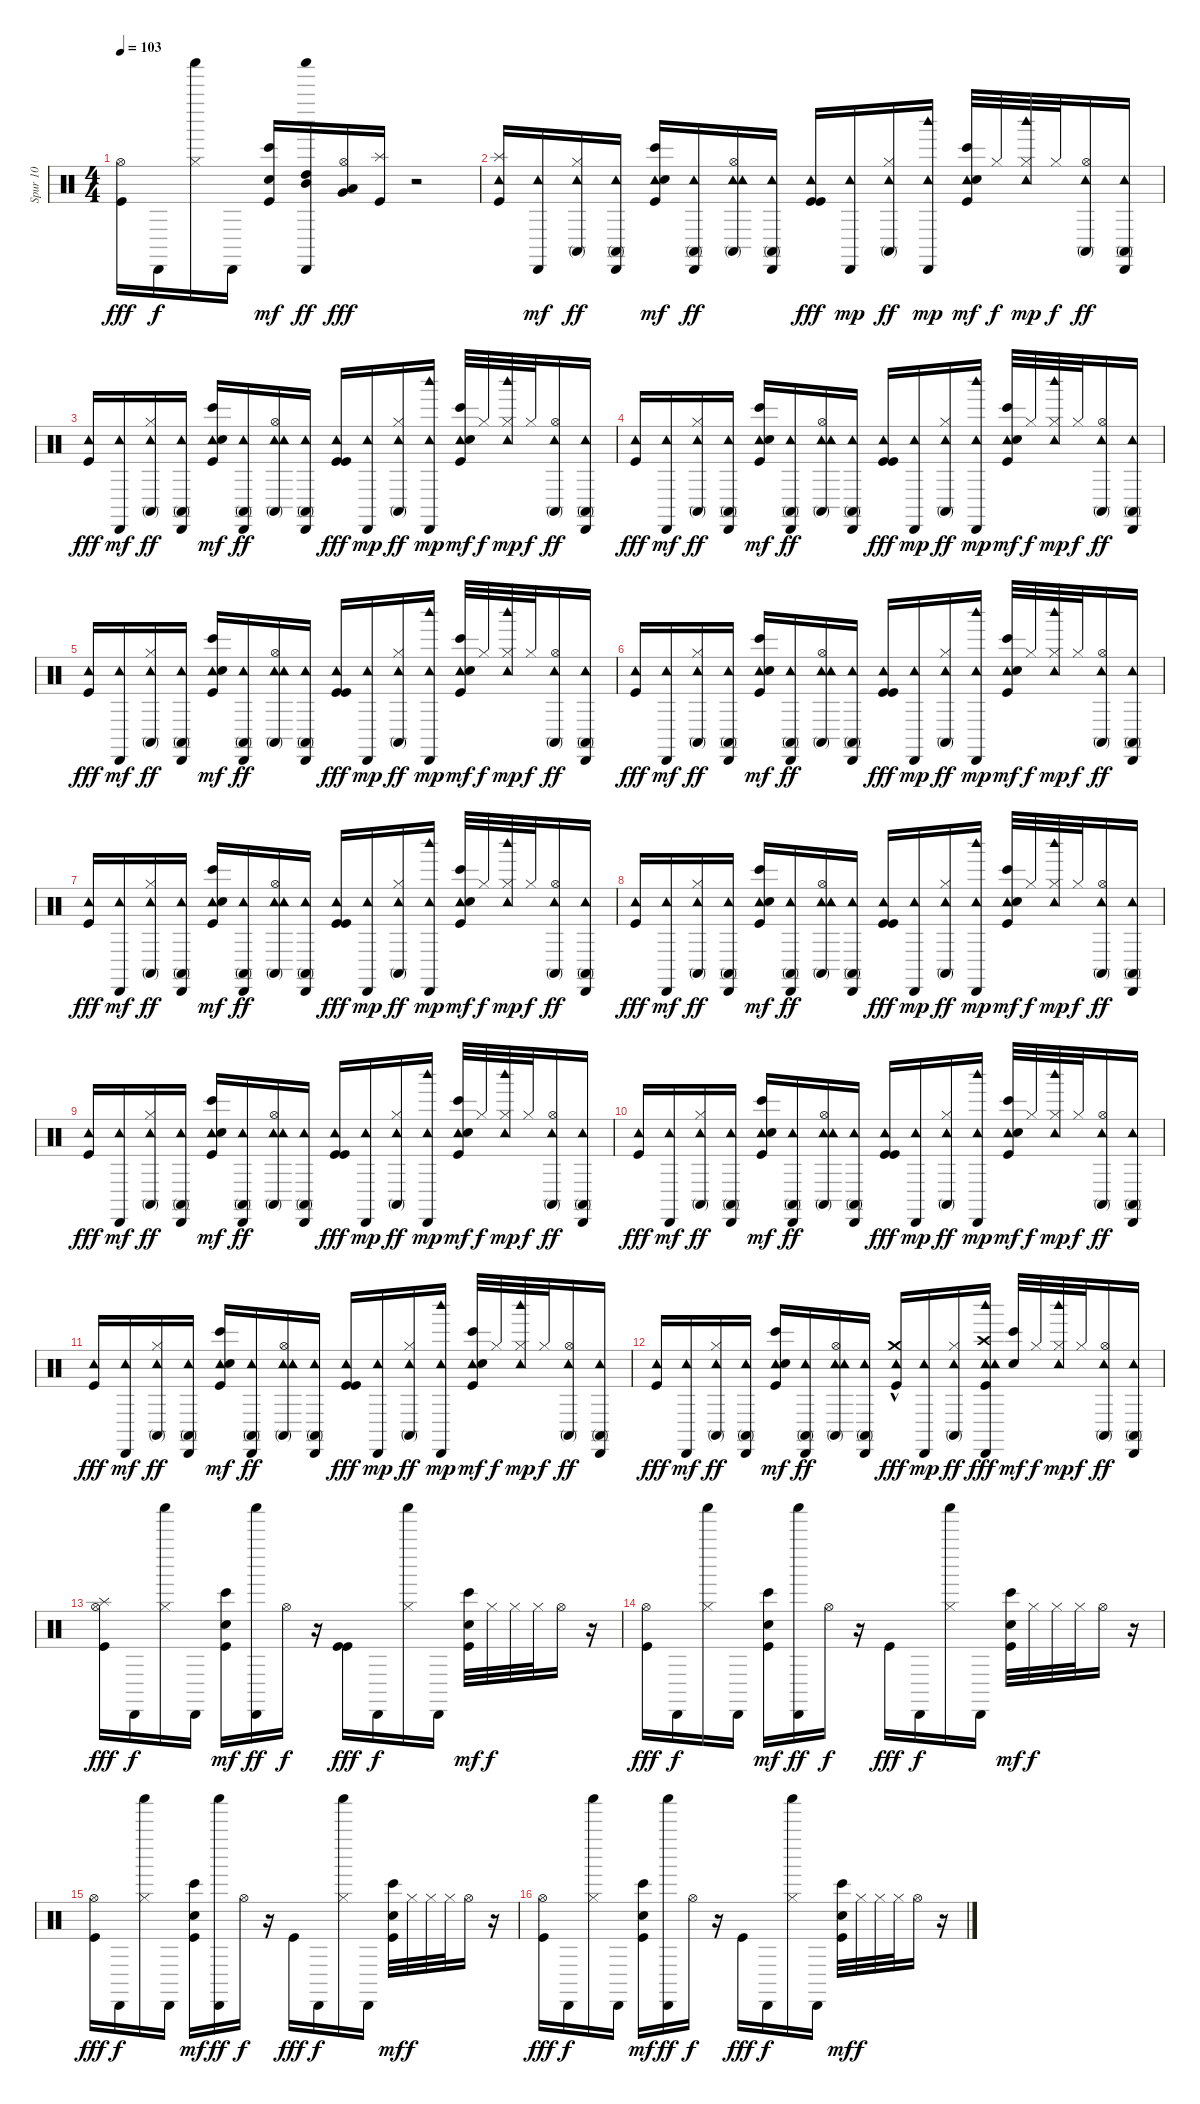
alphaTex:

\track ("Spur 10" "Spur 10") {instrument percussion}
\staff {score}
\articulation defaults
\ts (4 4)
\tempo 103
\clef neutral
\ks c
("Hi-Hat (open)" "Kick (hit)").16{dy fff} "Cabasa (hit)".16{dy f} ("Shaker (hit)" "Hi-Hat (closed)").16 "Cabasa (hit)".16 ("Kick (hit)" "Electric Snare (hit)" "Bongo High (hit)").16{dy mf} ("High Tom (hit)" "Mid Tom (hit)" "Cabasa (hit)" "Shaker (hit)").16{dy ff} ("Low Tom (hit)" "Hi-Hat (open)" "Very Low Tom (hit)").16{dy fff} ("Splash (hit)" "Kick (hit)").16 r.2 |
("Tambourine (hit)" "Splash (hit)" "Kick (hit)").16 ("Tambourine (hit)" "Cabasa (hit)").16{dy mf} ("Tambourine (hit)" "Hi-Hat (closed)" "Conga high (mute)").16{dy ff} ("Tambourine (hit)" "Cabasa (hit)" "Conga high (mute)").16 ("Tambourine (hit)" "Kick (hit)" "Electric Snare (hit)" "Bongo High (hit)").16{dy mf} ("Tambourine (hit)" "Cabasa (hit)" "Conga high (mute)").16{dy ff} ("Tambourine (hit)" "Hi-Hat (open)" "Tambourine (hit)" "Conga high (mute)").16 ("Tambourine (hit)" "Cabasa (hit)" "Conga high (mute)").16 ("Tambourine (hit)" "Kick (hit)" "Kick (hit)").16{dy fff} ("Cabasa (hit)" "Tambourine (hit)").16{dy mp} ("Hi-Hat (closed)" "Tambourine (hit)" "Conga high (mute)").16{dy ff} ("Cabasa (hit)" "Tambourine (hit)" "Woodblock high (hit)").16{dy mp} ("Tambourine (hit)" "Kick (hit)" "Electric Snare (hit)" "Bongo High (hit)").32{dy mf} "Hi-Hat (closed)".32{dy f} ("Hi-Hat (closed)" "Tambourine (hit)" "Woodblock high (hit)").32{dy mp} "Hi-Hat (closed)".32{dy f} ("Hi-Hat (open)" "Tambourine (hit)" "Conga high (mute)").16{dy ff} ("Tambourine (hit)" "Cabasa (hit)" "Conga high (mute)").16 |
("Tambourine (hit)" "Kick (hit)").16{dy fff} ("Tambourine (hit)" "Cabasa (hit)").16{dy mf} ("Tambourine (hit)" "Hi-Hat (closed)" "Conga high (mute)").16{dy ff} ("Tambourine (hit)" "Cabasa (hit)" "Conga high (mute)").16 ("Tambourine (hit)" "Kick (hit)" "Electric Snare (hit)" "Bongo High (hit)").16{dy mf} ("Tambourine (hit)" "Cabasa (hit)" "Conga high (mute)").16{dy ff} ("Tambourine (hit)" "Hi-Hat (open)" "Tambourine (hit)" "Conga high (mute)").16 ("Tambourine (hit)" "Cabasa (hit)" "Conga high (mute)").16 ("Tambourine (hit)" "Kick (hit)" "Kick (hit)").16{dy fff} ("Cabasa (hit)" "Tambourine (hit)").16{dy mp} ("Hi-Hat (closed)" "Tambourine (hit)" "Conga high (mute)").16{dy ff} ("Cabasa (hit)" "Tambourine (hit)" "Woodblock high (hit)").16{dy mp} ("Tambourine (hit)" "Kick (hit)" "Electric Snare (hit)" "Bongo High (hit)").32{dy mf} "Hi-Hat (closed)".32{dy f} ("Hi-Hat (closed)" "Tambourine (hit)" "Woodblock high (hit)").32{dy mp} "Hi-Hat (closed)".32{dy f} ("Hi-Hat (open)" "Tambourine (hit)" "Conga high (mute)").16{dy ff} ("Tambourine (hit)" "Cabasa (hit)" "Conga high (mute)").16 |
("Tambourine (hit)" "Kick (hit)").16{dy fff} ("Tambourine (hit)" "Cabasa (hit)").16{dy mf} ("Tambourine (hit)" "Hi-Hat (closed)" "Conga high (mute)").16{dy ff} ("Tambourine (hit)" "Cabasa (hit)" "Conga high (mute)").16 ("Tambourine (hit)" "Kick (hit)" "Electric Snare (hit)" "Bongo High (hit)").16{dy mf} ("Tambourine (hit)" "Cabasa (hit)" "Conga high (mute)").16{dy ff} ("Tambourine (hit)" "Hi-Hat (open)" "Tambourine (hit)" "Conga high (mute)").16 ("Tambourine (hit)" "Cabasa (hit)" "Conga high (mute)").16 ("Tambourine (hit)" "Kick (hit)" "Kick (hit)").16{dy fff} ("Cabasa (hit)" "Tambourine (hit)").16{dy mp} ("Hi-Hat (closed)" "Tambourine (hit)" "Conga high (mute)").16{dy ff} ("Cabasa (hit)" "Tambourine (hit)" "Woodblock high (hit)").16{dy mp} ("Tambourine (hit)" "Kick (hit)" "Electric Snare (hit)" "Bongo High (hit)").32{dy mf} "Hi-Hat (closed)".32{dy f} ("Hi-Hat (closed)" "Tambourine (hit)" "Woodblock high (hit)").32{dy mp} "Hi-Hat (closed)".32{dy f} ("Hi-Hat (open)" "Tambourine (hit)" "Conga high (mute)").16{dy ff} ("Tambourine (hit)" "Cabasa (hit)" "Conga high (mute)").16 |
("Tambourine (hit)" "Kick (hit)").16{dy fff} ("Tambourine (hit)" "Cabasa (hit)").16{dy mf} ("Tambourine (hit)" "Hi-Hat (closed)" "Conga high (mute)").16{dy ff} ("Tambourine (hit)" "Cabasa (hit)" "Conga high (mute)").16 ("Tambourine (hit)" "Kick (hit)" "Electric Snare (hit)" "Bongo High (hit)").16{dy mf} ("Tambourine (hit)" "Cabasa (hit)" "Conga high (mute)").16{dy ff} ("Tambourine (hit)" "Hi-Hat (open)" "Tambourine (hit)" "Conga high (mute)").16 ("Tambourine (hit)" "Cabasa (hit)" "Conga high (mute)").16 ("Tambourine (hit)" "Kick (hit)" "Kick (hit)").16{dy fff} ("Cabasa (hit)" "Tambourine (hit)").16{dy mp} ("Hi-Hat (closed)" "Tambourine (hit)" "Conga high (mute)").16{dy ff} ("Cabasa (hit)" "Tambourine (hit)" "Woodblock high (hit)").16{dy mp} ("Tambourine (hit)" "Kick (hit)" "Electric Snare (hit)" "Bongo High (hit)").32{dy mf} "Hi-Hat (closed)".32{dy f} ("Hi-Hat (closed)" "Tambourine (hit)" "Woodblock high (hit)").32{dy mp} "Hi-Hat (closed)".32{dy f} ("Hi-Hat (open)" "Tambourine (hit)" "Conga high (mute)").16{dy ff} ("Tambourine (hit)" "Cabasa (hit)" "Conga high (mute)").16 |
("Tambourine (hit)" "Kick (hit)").16{dy fff} ("Tambourine (hit)" "Cabasa (hit)").16{dy mf} ("Tambourine (hit)" "Hi-Hat (closed)" "Conga high (mute)").16{dy ff} ("Tambourine (hit)" "Cabasa (hit)" "Conga high (mute)").16 ("Tambourine (hit)" "Kick (hit)" "Electric Snare (hit)" "Bongo High (hit)").16{dy mf} ("Tambourine (hit)" "Cabasa (hit)" "Conga high (mute)").16{dy ff} ("Tambourine (hit)" "Hi-Hat (open)" "Tambourine (hit)" "Conga high (mute)").16 ("Tambourine (hit)" "Cabasa (hit)" "Conga high (mute)").16 ("Tambourine (hit)" "Kick (hit)" "Kick (hit)").16{dy fff} ("Cabasa (hit)" "Tambourine (hit)").16{dy mp} ("Hi-Hat (closed)" "Tambourine (hit)" "Conga high (mute)").16{dy ff} ("Cabasa (hit)" "Tambourine (hit)" "Woodblock high (hit)").16{dy mp} ("Tambourine (hit)" "Kick (hit)" "Electric Snare (hit)" "Bongo High (hit)").32{dy mf} "Hi-Hat (closed)".32{dy f} ("Hi-Hat (closed)" "Tambourine (hit)" "Woodblock high (hit)").32{dy mp} "Hi-Hat (closed)".32{dy f} ("Hi-Hat (open)" "Tambourine (hit)" "Conga high (mute)").16{dy ff} ("Tambourine (hit)" "Cabasa (hit)" "Conga high (mute)").16 |
("Tambourine (hit)" "Kick (hit)").16{dy fff} ("Tambourine (hit)" "Cabasa (hit)").16{dy mf} ("Tambourine (hit)" "Hi-Hat (closed)" "Conga high (mute)").16{dy ff} ("Tambourine (hit)" "Cabasa (hit)" "Conga high (mute)").16 ("Tambourine (hit)" "Kick (hit)" "Electric Snare (hit)" "Bongo High (hit)").16{dy mf} ("Tambourine (hit)" "Cabasa (hit)" "Conga high (mute)").16{dy ff} ("Tambourine (hit)" "Hi-Hat (open)" "Tambourine (hit)" "Conga high (mute)").16 ("Tambourine (hit)" "Cabasa (hit)" "Conga high (mute)").16 ("Tambourine (hit)" "Kick (hit)" "Kick (hit)").16{dy fff} ("Cabasa (hit)" "Tambourine (hit)").16{dy mp} ("Hi-Hat (closed)" "Tambourine (hit)" "Conga high (mute)").16{dy ff} ("Cabasa (hit)" "Tambourine (hit)" "Woodblock high (hit)").16{dy mp} ("Tambourine (hit)" "Kick (hit)" "Electric Snare (hit)" "Bongo High (hit)").32{dy mf} "Hi-Hat (closed)".32{dy f} ("Hi-Hat (closed)" "Tambourine (hit)" "Woodblock high (hit)").32{dy mp} "Hi-Hat (closed)".32{dy f} ("Hi-Hat (open)" "Tambourine (hit)" "Conga high (mute)").16{dy ff} ("Tambourine (hit)" "Cabasa (hit)" "Conga high (mute)").16 |
("Tambourine (hit)" "Kick (hit)").16{dy fff} ("Tambourine (hit)" "Cabasa (hit)").16{dy mf} ("Tambourine (hit)" "Hi-Hat (closed)" "Conga high (mute)").16{dy ff} ("Tambourine (hit)" "Cabasa (hit)" "Conga high (mute)").16 ("Tambourine (hit)" "Kick (hit)" "Electric Snare (hit)" "Bongo High (hit)").16{dy mf} ("Tambourine (hit)" "Cabasa (hit)" "Conga high (mute)").16{dy ff} ("Tambourine (hit)" "Hi-Hat (open)" "Tambourine (hit)" "Conga high (mute)").16 ("Tambourine (hit)" "Cabasa (hit)" "Conga high (mute)").16 ("Tambourine (hit)" "Kick (hit)" "Kick (hit)").16{dy fff} ("Cabasa (hit)" "Tambourine (hit)").16{dy mp} ("Hi-Hat (closed)" "Tambourine (hit)" "Conga high (mute)").16{dy ff} ("Cabasa (hit)" "Tambourine (hit)" "Woodblock high (hit)").16{dy mp} ("Tambourine (hit)" "Kick (hit)" "Electric Snare (hit)" "Bongo High (hit)").32{dy mf} "Hi-Hat (closed)".32{dy f} ("Hi-Hat (closed)" "Tambourine (hit)" "Woodblock high (hit)").32{dy mp} "Hi-Hat (closed)".32{dy f} ("Hi-Hat (open)" "Tambourine (hit)" "Conga high (mute)").16{dy ff} ("Tambourine (hit)" "Cabasa (hit)" "Conga high (mute)").16 |
("Tambourine (hit)" "Kick (hit)").16{dy fff} ("Tambourine (hit)" "Cabasa (hit)").16{dy mf} ("Tambourine (hit)" "Hi-Hat (closed)" "Conga high (mute)").16{dy ff} ("Tambourine (hit)" "Cabasa (hit)" "Conga high (mute)").16 ("Tambourine (hit)" "Kick (hit)" "Electric Snare (hit)" "Bongo High (hit)").16{dy mf} ("Tambourine (hit)" "Cabasa (hit)" "Conga high (mute)").16{dy ff} ("Tambourine (hit)" "Hi-Hat (open)" "Tambourine (hit)" "Conga high (mute)").16 ("Tambourine (hit)" "Cabasa (hit)" "Conga high (mute)").16 ("Tambourine (hit)" "Kick (hit)" "Kick (hit)").16{dy fff} ("Cabasa (hit)" "Tambourine (hit)").16{dy mp} ("Hi-Hat (closed)" "Tambourine (hit)" "Conga high (mute)").16{dy ff} ("Cabasa (hit)" "Tambourine (hit)" "Woodblock high (hit)").16{dy mp} ("Tambourine (hit)" "Kick (hit)" "Electric Snare (hit)" "Bongo High (hit)").32{dy mf} "Hi-Hat (closed)".32{dy f} ("Hi-Hat (closed)" "Tambourine (hit)" "Woodblock high (hit)").32{dy mp} "Hi-Hat (closed)".32{dy f} ("Hi-Hat (open)" "Tambourine (hit)" "Conga high (mute)").16{dy ff} ("Tambourine (hit)" "Cabasa (hit)" "Conga high (mute)").16 |
("Tambourine (hit)" "Kick (hit)").16{dy fff} ("Tambourine (hit)" "Cabasa (hit)").16{dy mf} ("Tambourine (hit)" "Hi-Hat (closed)" "Conga high (mute)").16{dy ff} ("Tambourine (hit)" "Cabasa (hit)" "Conga high (mute)").16 ("Tambourine (hit)" "Kick (hit)" "Electric Snare (hit)" "Bongo High (hit)").16{dy mf} ("Tambourine (hit)" "Cabasa (hit)" "Conga high (mute)").16{dy ff} ("Tambourine (hit)" "Hi-Hat (open)" "Tambourine (hit)" "Conga high (mute)").16 ("Tambourine (hit)" "Cabasa (hit)" "Conga high (mute)").16 ("Tambourine (hit)" "Kick (hit)" "Kick (hit)").16{dy fff} ("Cabasa (hit)" "Tambourine (hit)").16{dy mp} ("Hi-Hat (closed)" "Tambourine (hit)" "Conga high (mute)").16{dy ff} ("Cabasa (hit)" "Tambourine (hit)" "Woodblock high (hit)").16{dy mp} ("Tambourine (hit)" "Kick (hit)" "Electric Snare (hit)" "Bongo High (hit)").32{dy mf} "Hi-Hat (closed)".32{dy f} ("Hi-Hat (closed)" "Tambourine (hit)" "Woodblock high (hit)").32{dy mp} "Hi-Hat (closed)".32{dy f} ("Hi-Hat (open)" "Tambourine (hit)" "Conga high (mute)").16{dy ff} ("Tambourine (hit)" "Cabasa (hit)" "Conga high (mute)").16 |
("Tambourine (hit)" "Kick (hit)").16{dy fff} ("Tambourine (hit)" "Cabasa (hit)").16{dy mf} ("Tambourine (hit)" "Hi-Hat (closed)" "Conga high (mute)").16{dy ff} ("Tambourine (hit)" "Cabasa (hit)" "Conga high (mute)").16 ("Tambourine (hit)" "Kick (hit)" "Electric Snare (hit)" "Bongo High (hit)").16{dy mf} ("Tambourine (hit)" "Cabasa (hit)" "Conga high (mute)").16{dy ff} ("Tambourine (hit)" "Hi-Hat (open)" "Tambourine (hit)" "Conga high (mute)").16 ("Tambourine (hit)" "Cabasa (hit)" "Conga high (mute)").16 ("Tambourine (hit)" "Kick (hit)" "Kick (hit)").16{dy fff} ("Cabasa (hit)" "Tambourine (hit)").16{dy mp} ("Hi-Hat (closed)" "Tambourine (hit)" "Conga high (mute)").16{dy ff} ("Cabasa (hit)" "Tambourine (hit)" "Woodblock high (hit)").16{dy mp} ("Tambourine (hit)" "Kick (hit)" "Electric Snare (hit)" "Bongo High (hit)").32{dy mf} "Hi-Hat (closed)".32{dy f} ("Hi-Hat (closed)" "Tambourine (hit)" "Woodblock high (hit)").32{dy mp} "Hi-Hat (closed)".32{dy f} ("Hi-Hat (open)" "Tambourine (hit)" "Conga high (mute)").16{dy ff} ("Tambourine (hit)" "Cabasa (hit)" "Conga high (mute)").16 |
("Tambourine (hit)" "Kick (hit)").16{dy fff} ("Tambourine (hit)" "Cabasa (hit)").16{dy mf} ("Tambourine (hit)" "Hi-Hat (closed)" "Conga high (mute)").16{dy ff} ("Tambourine (hit)" "Cabasa (hit)" "Conga high (mute)").16 ("Tambourine (hit)" "Kick (hit)" "Electric Snare (hit)" "Bongo High (hit)").16{dy mf} ("Tambourine (hit)" "Cabasa (hit)" "Conga high (mute)").16{dy ff} ("Tambourine (hit)" "Hi-Hat (open)" "Tambourine (hit)" "Conga high (mute)").16 ("Tambourine (hit)" "Cabasa (hit)" "Conga high (mute)").16 ("Tambourine (hit)" "Crash medium (hit)" "Kick (hit)"{hac}).16{dy fff} ("Cabasa (hit)" "Tambourine (hit)").16{dy mp} ("Hi-Hat (closed)" "Tambourine (hit)" "Conga high (mute)").16{dy ff} ("Cabasa (hit)" "Tambourine (hit)" "Woodblock high (hit)" "Kick (hit)" "Tambourine (hit)" "Crash high (hit)").16{dy fff} ("Electric Snare (hit)" "Bongo High (hit)").32{dy mf} "Hi-Hat (closed)".32{dy f} ("Hi-Hat (closed)" "Tambourine (hit)" "Woodblock high (hit)").32{dy mp} "Hi-Hat (closed)".32{dy f} ("Hi-Hat (open)" "Tambourine (hit)" "Conga high (mute)").16{dy ff} ("Tambourine (hit)" "Cabasa (hit)" "Conga high (mute)").16 |
("Hi-Hat (open)" "Splash (hit)" "Kick (hit)").16{dy fff} "Cabasa (hit)".16{dy f} ("Shaker (hit)" "Hi-Hat (closed)").16 "Cabasa (hit)".16 ("Kick (hit)" "Electric Snare (hit)" "Bongo High (hit)").16{dy mf} ("Cabasa (hit)" "Shaker (hit)").16{dy ff} "Hi-Hat (open)".16{dy f} r.16 ("Kick (hit)" "Kick (hit)").16{dy fff} "Cabasa (hit)".16{dy f} ("Hi-Hat (closed)" "Shaker (hit)").16 "Cabasa (hit)".16 ("Kick (hit)" "Electric Snare (hit)" "Bongo High (hit)").32{dy mf} "Hi-Hat (closed)".32{dy f} "Hi-Hat (closed)".32 "Hi-Hat (closed)".32 "Hi-Hat (open)".16 r.16 |
("Hi-Hat (open)" "Kick (hit)").16{dy fff} "Cabasa (hit)".16{dy f} ("Shaker (hit)" "Hi-Hat (closed)").16 "Cabasa (hit)".16 ("Kick (hit)" "Electric Snare (hit)" "Bongo High (hit)").16{dy mf} ("Cabasa (hit)" "Shaker (hit)").16{dy ff} "Hi-Hat (open)".16{dy f} r.16 "Kick (hit)".16{dy fff} "Cabasa (hit)".16{dy f} ("Hi-Hat (closed)" "Shaker (hit)").16 "Cabasa (hit)".16 ("Kick (hit)" "Electric Snare (hit)" "Bongo High (hit)").32{dy mf} "Hi-Hat (closed)".32{dy f} "Hi-Hat (closed)".32 "Hi-Hat (closed)".32 "Hi-Hat (open)".16 r.16 |
("Hi-Hat (open)" "Kick (hit)").16{dy fff} "Cabasa (hit)".16{dy f} ("Shaker (hit)" "Hi-Hat (closed)").16 "Cabasa (hit)".16 ("Kick (hit)" "Electric Snare (hit)" "Bongo High (hit)").16{dy mf} ("Cabasa (hit)" "Shaker (hit)").16{dy ff} "Hi-Hat (open)".16{dy f} r.16 "Kick (hit)".16{dy fff} "Cabasa (hit)".16{dy f} ("Hi-Hat (closed)" "Shaker (hit)").16 "Cabasa (hit)".16 ("Kick (hit)" "Electric Snare (hit)" "Bongo High (hit)").32{dy mf} "Hi-Hat (closed)".32{dy f} "Hi-Hat (closed)".32 "Hi-Hat (closed)".32 "Hi-Hat (open)".16 r.16 |
("Hi-Hat (open)" "Kick (hit)").16{dy fff} "Cabasa (hit)".16{dy f} ("Shaker (hit)" "Hi-Hat (closed)").16 "Cabasa (hit)".16 ("Kick (hit)" "Electric Snare (hit)" "Bongo High (hit)").16{dy mf} ("Cabasa (hit)" "Shaker (hit)").16{dy ff} "Hi-Hat (open)".16{dy f} r.16 "Kick (hit)".16{dy fff} "Cabasa (hit)".16{dy f} ("Hi-Hat (closed)" "Shaker (hit)").16 "Cabasa (hit)".16 ("Kick (hit)" "Electric Snare (hit)" "Bongo High (hit)").32{dy mf} "Hi-Hat (closed)".32{dy f} "Hi-Hat (closed)".32 "Hi-Hat (closed)".32 "Hi-Hat (open)".16 r.16
